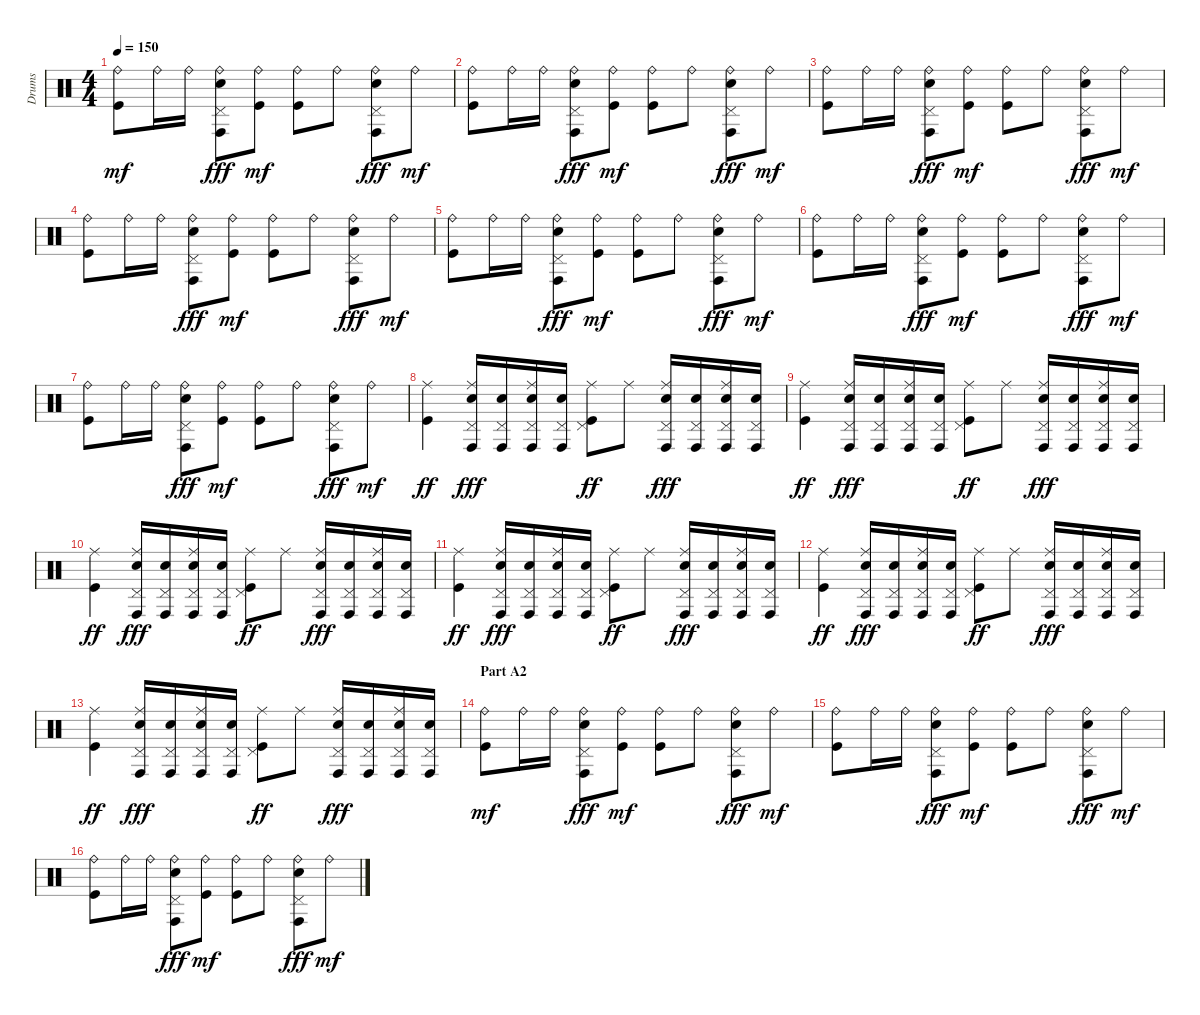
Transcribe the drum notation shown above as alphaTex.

\track ("Drums" "Drums") {instrument percussion}
\staff {score}
\articulation defaults
\ts (4 4)
\tempo 150
\clef neutral
\ks c
("Ride (bell)" "Kick (hit)").8{dy mf} "Ride (bell)".16 "Ride (bell)".16 ("Ride (bell)" "Pedal Hi-Hat (hit)" "Conga high (hit)" "Electric Snare (hit)").8{dy fff} ("Ride (bell)" "Kick (hit)").8{dy mf} ("Ride (bell)" "Kick (hit)").8 "Ride (bell)".8 ("Ride (bell)" "Pedal Hi-Hat (hit)" "Conga high (hit)" "Electric Snare (hit)").8{dy fff} "Ride (bell)".8{dy mf} |
("Ride (bell)" "Kick (hit)").8 "Ride (bell)".16 "Ride (bell)".16 ("Ride (bell)" "Pedal Hi-Hat (hit)" "Conga high (hit)" "Electric Snare (hit)").8{dy fff} ("Ride (bell)" "Kick (hit)").8{dy mf} ("Ride (bell)" "Kick (hit)").8 "Ride (bell)".8 ("Ride (bell)" "Pedal Hi-Hat (hit)" "Conga high (hit)" "Electric Snare (hit)").8{dy fff} "Ride (bell)".8{dy mf} |
("Ride (bell)" "Kick (hit)").8 "Ride (bell)".16 "Ride (bell)".16 ("Ride (bell)" "Pedal Hi-Hat (hit)" "Conga high (hit)" "Electric Snare (hit)").8{dy fff} ("Ride (bell)" "Kick (hit)").8{dy mf} ("Ride (bell)" "Kick (hit)").8 "Ride (bell)".8 ("Ride (bell)" "Pedal Hi-Hat (hit)" "Conga high (hit)" "Electric Snare (hit)").8{dy fff} "Ride (bell)".8{dy mf} |
("Ride (bell)" "Kick (hit)").8 "Ride (bell)".16 "Ride (bell)".16 ("Ride (bell)" "Pedal Hi-Hat (hit)" "Conga high (hit)" "Electric Snare (hit)").8{dy fff} ("Ride (bell)" "Kick (hit)").8{dy mf} ("Ride (bell)" "Kick (hit)").8 "Ride (bell)".8 ("Ride (bell)" "Pedal Hi-Hat (hit)" "Conga high (hit)" "Electric Snare (hit)").8{dy fff} "Ride (bell)".8{dy mf} |
("Ride (bell)" "Kick (hit)").8 "Ride (bell)".16 "Ride (bell)".16 ("Ride (bell)" "Pedal Hi-Hat (hit)" "Conga high (hit)" "Electric Snare (hit)").8{dy fff} ("Ride (bell)" "Kick (hit)").8{dy mf} ("Ride (bell)" "Kick (hit)").8 "Ride (bell)".8 ("Ride (bell)" "Pedal Hi-Hat (hit)" "Conga high (hit)" "Electric Snare (hit)").8{dy fff} "Ride (bell)".8{dy mf} |
("Ride (bell)" "Kick (hit)").8 "Ride (bell)".16 "Ride (bell)".16 ("Ride (bell)" "Pedal Hi-Hat (hit)" "Conga high (hit)" "Electric Snare (hit)").8{dy fff} ("Ride (bell)" "Kick (hit)").8{dy mf} ("Ride (bell)" "Kick (hit)").8 "Ride (bell)".8 ("Ride (bell)" "Pedal Hi-Hat (hit)" "Conga high (hit)" "Electric Snare (hit)").8{dy fff} "Ride (bell)".8{dy mf} |
("Ride (bell)" "Kick (hit)").8 "Ride (bell)".16 "Ride (bell)".16 ("Ride (bell)" "Pedal Hi-Hat (hit)" "Conga high (hit)" "Electric Snare (hit)").8{dy fff} ("Ride (bell)" "Kick (hit)").8{dy mf} ("Ride (bell)" "Kick (hit)").8 "Ride (bell)".8 ("Ride (bell)" "Pedal Hi-Hat (hit)" "Conga high (hit)" "Electric Snare (hit)").8{dy fff} "Ride (bell)".8{dy mf} |
("Ride (middle)" "Kick (hit)").4{dy ff} ("Ride (middle)" "Pedal Hi-Hat (hit)" "Conga high (hit)" "Electric Snare (hit)").16{dy fff} ("Pedal Hi-Hat (hit)" "Conga high (hit)" "Electric Snare (hit)").16 ("Ride (middle)" "Pedal Hi-Hat (hit)" "Conga high (hit)" "Electric Snare (hit)").16 ("Pedal Hi-Hat (hit)" "Conga high (hit)" "Electric Snare (hit)").16 ("Ride (middle)" "Pedal Hi-Hat (hit)" "Kick (hit)").8{dy ff} "Ride (middle)".8 ("Ride (middle)" "Pedal Hi-Hat (hit)" "Conga high (hit)" "Electric Snare (hit)").16{dy fff} ("Pedal Hi-Hat (hit)" "Conga high (hit)" "Electric Snare (hit)").16 ("Ride (middle)" "Pedal Hi-Hat (hit)" "Conga high (hit)" "Electric Snare (hit)").16 ("Pedal Hi-Hat (hit)" "Conga high (hit)" "Electric Snare (hit)").16 |
("Ride (middle)" "Kick (hit)").4{dy ff} ("Ride (middle)" "Pedal Hi-Hat (hit)" "Conga high (hit)" "Electric Snare (hit)").16{dy fff} ("Pedal Hi-Hat (hit)" "Conga high (hit)" "Electric Snare (hit)").16 ("Ride (middle)" "Pedal Hi-Hat (hit)" "Conga high (hit)" "Electric Snare (hit)").16 ("Pedal Hi-Hat (hit)" "Conga high (hit)" "Electric Snare (hit)").16 ("Ride (middle)" "Pedal Hi-Hat (hit)" "Kick (hit)").8{dy ff} "Ride (middle)".8 ("Ride (middle)" "Pedal Hi-Hat (hit)" "Conga high (hit)" "Electric Snare (hit)").16{dy fff} ("Pedal Hi-Hat (hit)" "Conga high (hit)" "Electric Snare (hit)").16 ("Ride (middle)" "Pedal Hi-Hat (hit)" "Conga high (hit)" "Electric Snare (hit)").16 ("Pedal Hi-Hat (hit)" "Conga high (hit)" "Electric Snare (hit)").16 |
("Ride (middle)" "Kick (hit)").4{dy ff} ("Ride (middle)" "Pedal Hi-Hat (hit)" "Conga high (hit)" "Electric Snare (hit)").16{dy fff} ("Pedal Hi-Hat (hit)" "Conga high (hit)" "Electric Snare (hit)").16 ("Ride (middle)" "Pedal Hi-Hat (hit)" "Conga high (hit)" "Electric Snare (hit)").16 ("Pedal Hi-Hat (hit)" "Conga high (hit)" "Electric Snare (hit)").16 ("Ride (middle)" "Pedal Hi-Hat (hit)" "Kick (hit)").8{dy ff} "Ride (middle)".8 ("Ride (middle)" "Pedal Hi-Hat (hit)" "Conga high (hit)" "Electric Snare (hit)").16{dy fff} ("Pedal Hi-Hat (hit)" "Conga high (hit)" "Electric Snare (hit)").16 ("Ride (middle)" "Pedal Hi-Hat (hit)" "Conga high (hit)" "Electric Snare (hit)").16 ("Pedal Hi-Hat (hit)" "Conga high (hit)" "Electric Snare (hit)").16 |
("Ride (middle)" "Kick (hit)").4{dy ff} ("Ride (middle)" "Pedal Hi-Hat (hit)" "Conga high (hit)" "Electric Snare (hit)").16{dy fff} ("Pedal Hi-Hat (hit)" "Conga high (hit)" "Electric Snare (hit)").16 ("Ride (middle)" "Pedal Hi-Hat (hit)" "Conga high (hit)" "Electric Snare (hit)").16 ("Pedal Hi-Hat (hit)" "Conga high (hit)" "Electric Snare (hit)").16 ("Ride (middle)" "Pedal Hi-Hat (hit)" "Kick (hit)").8{dy ff} "Ride (middle)".8 ("Ride (middle)" "Pedal Hi-Hat (hit)" "Conga high (hit)" "Electric Snare (hit)").16{dy fff} ("Pedal Hi-Hat (hit)" "Conga high (hit)" "Electric Snare (hit)").16 ("Ride (middle)" "Pedal Hi-Hat (hit)" "Conga high (hit)" "Electric Snare (hit)").16 ("Pedal Hi-Hat (hit)" "Conga high (hit)" "Electric Snare (hit)").16 |
("Ride (middle)" "Kick (hit)").4{dy ff} ("Ride (middle)" "Pedal Hi-Hat (hit)" "Conga high (hit)" "Electric Snare (hit)").16{dy fff} ("Pedal Hi-Hat (hit)" "Conga high (hit)" "Electric Snare (hit)").16 ("Ride (middle)" "Pedal Hi-Hat (hit)" "Conga high (hit)" "Electric Snare (hit)").16 ("Pedal Hi-Hat (hit)" "Conga high (hit)" "Electric Snare (hit)").16 ("Ride (middle)" "Pedal Hi-Hat (hit)" "Kick (hit)").8{dy ff} "Ride (middle)".8 ("Ride (middle)" "Pedal Hi-Hat (hit)" "Conga high (hit)" "Electric Snare (hit)").16{dy fff} ("Pedal Hi-Hat (hit)" "Conga high (hit)" "Electric Snare (hit)").16 ("Ride (middle)" "Pedal Hi-Hat (hit)" "Conga high (hit)" "Electric Snare (hit)").16 ("Pedal Hi-Hat (hit)" "Conga high (hit)" "Electric Snare (hit)").16 |
("Ride (middle)" "Kick (hit)").4{dy ff} ("Ride (middle)" "Pedal Hi-Hat (hit)" "Conga high (hit)" "Electric Snare (hit)").16{dy fff} ("Pedal Hi-Hat (hit)" "Conga high (hit)" "Electric Snare (hit)").16 ("Ride (middle)" "Pedal Hi-Hat (hit)" "Conga high (hit)" "Electric Snare (hit)").16 ("Pedal Hi-Hat (hit)" "Conga high (hit)" "Electric Snare (hit)").16 ("Ride (middle)" "Pedal Hi-Hat (hit)" "Kick (hit)").8{dy ff} "Ride (middle)".8 ("Ride (middle)" "Pedal Hi-Hat (hit)" "Conga high (hit)" "Electric Snare (hit)").16{dy fff} ("Pedal Hi-Hat (hit)" "Conga high (hit)" "Electric Snare (hit)").16 ("Ride (middle)" "Pedal Hi-Hat (hit)" "Conga high (hit)" "Electric Snare (hit)").16 ("Pedal Hi-Hat (hit)" "Conga high (hit)" "Electric Snare (hit)").16 |
\section ("" "Part A2")
("Ride (bell)" "Kick (hit)").8{dy mf} "Ride (bell)".16 "Ride (bell)".16 ("Ride (bell)" "Pedal Hi-Hat (hit)" "Conga high (hit)" "Electric Snare (hit)").8{dy fff} ("Ride (bell)" "Kick (hit)").8{dy mf} ("Ride (bell)" "Kick (hit)").8 "Ride (bell)".8 ("Ride (bell)" "Pedal Hi-Hat (hit)" "Conga high (hit)" "Electric Snare (hit)").8{dy fff} "Ride (bell)".8{dy mf} |
("Ride (bell)" "Kick (hit)").8 "Ride (bell)".16 "Ride (bell)".16 ("Ride (bell)" "Pedal Hi-Hat (hit)" "Conga high (hit)" "Electric Snare (hit)").8{dy fff} ("Ride (bell)" "Kick (hit)").8{dy mf} ("Ride (bell)" "Kick (hit)").8 "Ride (bell)".8 ("Ride (bell)" "Pedal Hi-Hat (hit)" "Conga high (hit)" "Electric Snare (hit)").8{dy fff} "Ride (bell)".8{dy mf} |
("Ride (bell)" "Kick (hit)").8 "Ride (bell)".16 "Ride (bell)".16 ("Ride (bell)" "Pedal Hi-Hat (hit)" "Conga high (hit)" "Electric Snare (hit)").8{dy fff} ("Ride (bell)" "Kick (hit)").8{dy mf} ("Ride (bell)" "Kick (hit)").8 "Ride (bell)".8 ("Ride (bell)" "Pedal Hi-Hat (hit)" "Conga high (hit)" "Electric Snare (hit)").8{dy fff} "Ride (bell)".8{dy mf}
